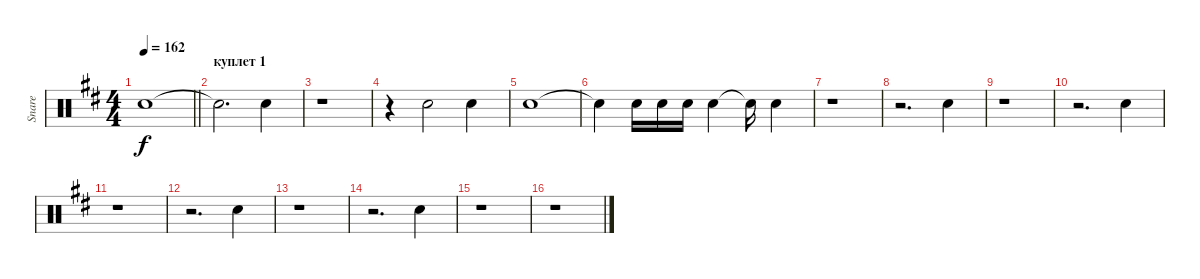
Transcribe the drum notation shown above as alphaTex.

\track ("Snare" "Snare") {instrument percussion}
\staff {score}
\articulation defaults
\ts (4 4)
\tempo 162
\clef neutral
\barLineRight lightlight
\ks bminor "Electric Snare (hit)".1{dy f}
|
\section ("" "куплет 1")
"Electric Snare (hit)"{t}.2{d} "Electric Snare (hit)".4 |
r.1 |
r.4 "Electric Snare (hit)".2 "Electric Snare (hit)".4 |
"Electric Snare (hit)".1 |
"Electric Snare (hit)"{t}.4 "Electric Snare (hit)".16 "Electric Snare (hit)".16 "Electric Snare (hit)".16 "Electric Snare (hit)".4 "Electric Snare (hit)"{t}.16 "Electric Snare (hit)".4 |
r.1 |
r.2{d} "Electric Snare (hit)".4 |
r.1 |
r.2{d} "Electric Snare (hit)".4 |
r.1 |
r.2{d} "Electric Snare (hit)".4 |
r.1 |
r.2{d} "Electric Snare (hit)".4 |
r.1 |
r.1
